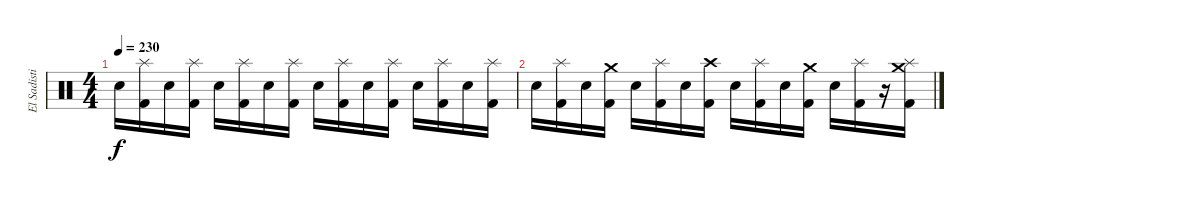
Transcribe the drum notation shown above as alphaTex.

\track ("El Sadistico" "El Sadisti") {instrument percussion}
\staff {score}
\articulation defaults
\ts (4 4)
\tempo 230
\clef neutral
\ks c "Electric Snare (hit)".16{dy f}
("Splash (hit)" "Kick (hit) 2").16 "Electric Snare (hit)".16 ("Splash (hit)" "Kick (hit) 2").16 "Electric Snare (hit)".16 ("Splash (hit)" "Kick (hit) 2").16 "Electric Snare (hit)".16 ("Splash (hit)" "Kick (hit) 2").16 "Electric Snare (hit)".16 ("Splash (hit)" "Kick (hit) 2").16 "Electric Snare (hit)".16 ("Splash (hit)" "Kick (hit) 2").16 "Electric Snare (hit)".16 ("Splash (hit)" "Kick (hit) 2").16 "Electric Snare (hit)".16 ("Splash (hit)" "Kick (hit) 2").16 |
"Electric Snare (hit)".16 ("Splash (hit)" "Kick (hit) 2").16 "Electric Snare (hit)".16 ("Crash medium (hit)" "Kick (hit) 2").16 "Electric Snare (hit)".16 ("Splash (hit)" "Kick (hit) 2").16 "Electric Snare (hit)".16 ("Crash high (hit)" "Kick (hit) 2").16 "Electric Snare (hit)".16 ("Splash (hit)" "Kick (hit) 2").16 "Electric Snare (hit)".16 ("Crash medium (hit)" "Kick (hit) 2").16 "Electric Snare (hit)".16 ("Splash (hit)" "Kick (hit) 2").16 r.16 ("Crash medium (hit)" "Splash (hit)" "Kick (hit) 2").16
